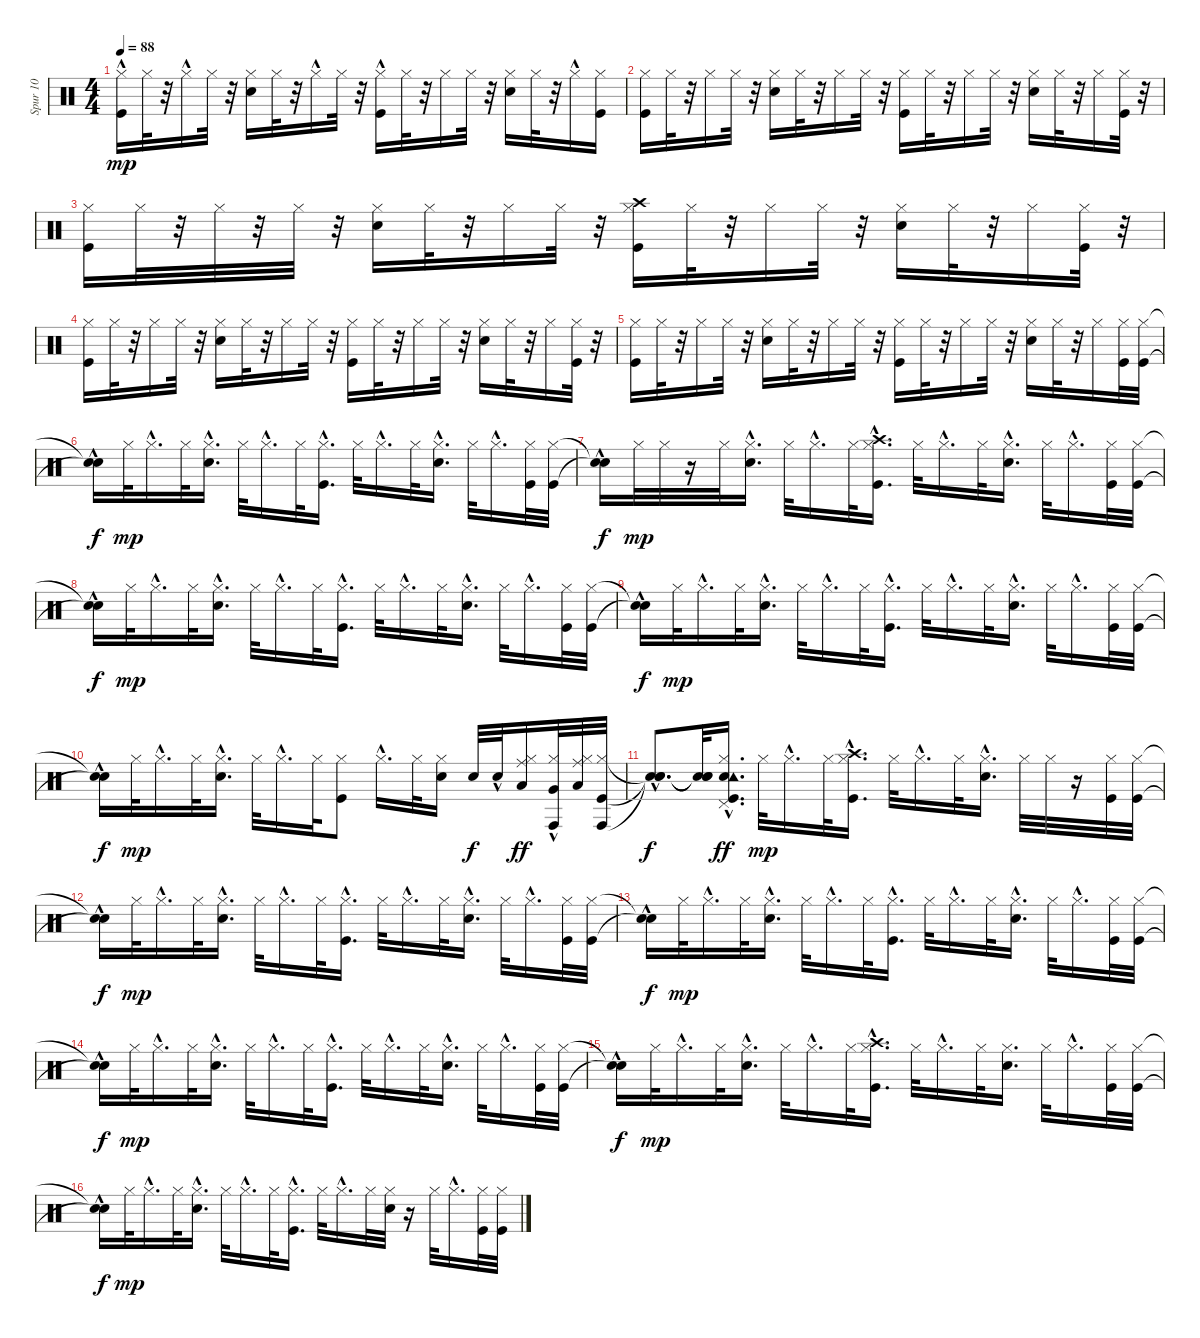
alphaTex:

\track ("Spur 10" "Spur 10") {instrument percussion}
\staff {score}
\articulation defaults
\ts (4 4)
\tempo 88
\clef neutral
\ks c
("Kick (hit)" "Hi-Hat (closed)"{hac}).16{dy mp} "Hi-Hat (closed)".32 r.32 "Hi-Hat (closed)"{hac}.16 "Hi-Hat (closed)".32 r.32 ("Snare (hit) 2" "Hi-Hat (closed)").16 "Hi-Hat (closed)".32 r.32 "Hi-Hat (closed)"{hac}.16 "Hi-Hat (closed)".32 r.32 ("Kick (hit)"{hac} "Hi-Hat (closed)").16 "Hi-Hat (closed)".32 r.32 "Hi-Hat (closed)".16 "Hi-Hat (closed)".32 r.32 ("Snare (hit) 2" "Hi-Hat (closed)").16 "Hi-Hat (closed)".32 r.32 "Hi-Hat (closed)"{hac}.16 ("Kick (hit)" "Hi-Hat (closed)").16 |
("Kick (hit)" "Hi-Hat (closed)").16 "Hi-Hat (closed)".32 r.32 "Hi-Hat (closed)".16 "Hi-Hat (closed)".32 r.32 ("Snare (hit) 2" "Hi-Hat (closed)").16 "Hi-Hat (closed)".32 r.32 "Hi-Hat (closed)".16 "Hi-Hat (closed)".32 r.32 ("Kick (hit)" "Hi-Hat (closed)").16 "Hi-Hat (closed)".32 r.32 "Hi-Hat (closed)".16 "Hi-Hat (closed)".32 r.32 ("Snare (hit) 2" "Hi-Hat (closed)").16 "Hi-Hat (closed)".32 r.32 "Hi-Hat (closed)".16 ("Kick (hit)" "Hi-Hat (closed)").32 r.32 |
("Kick (hit)" "Hi-Hat (closed)").16 "Hi-Hat (closed)".32 r.32 "Hi-Hat (closed)".32 r.32 "Hi-Hat (closed)".32 r.32 ("Snare (hit) 2" "Hi-Hat (closed)").16 "Hi-Hat (closed)".32 r.32 "Hi-Hat (closed)".16 "Hi-Hat (closed)".32 r.32 ("Kick (hit)" "Hi-Hat (closed)" "Crash high (hit)").16 "Hi-Hat (closed)".32 r.32 "Hi-Hat (closed)".16 "Hi-Hat (closed)".32 r.32 ("Snare (hit) 2" "Hi-Hat (closed)").16 "Hi-Hat (closed)".32 r.32 "Hi-Hat (closed)".16 ("Kick (hit)" "Hi-Hat (closed)").32 r.32 |
("Kick (hit)" "Hi-Hat (closed)").16 "Hi-Hat (closed)".32 r.32 "Hi-Hat (closed)".16 "Hi-Hat (closed)".32 r.32 ("Snare (hit) 2" "Hi-Hat (closed)").16 "Hi-Hat (closed)".32 r.32 "Hi-Hat (closed)".16 "Hi-Hat (closed)".32 r.32 ("Kick (hit)" "Hi-Hat (closed)").16 "Hi-Hat (closed)".32 r.32 "Hi-Hat (closed)".16 "Hi-Hat (closed)".32 r.32 ("Snare (hit) 2" "Hi-Hat (closed)").16 "Hi-Hat (closed)".32 r.32 "Hi-Hat (closed)".16 ("Kick (hit)" "Hi-Hat (closed)").32 r.32 |
("Kick (hit)" "Hi-Hat (closed)").16 "Hi-Hat (closed)".32 r.32 "Hi-Hat (closed)".16 "Hi-Hat (closed)".32 r.32 ("Snare (hit) 2" "Hi-Hat (closed)").16 "Hi-Hat (closed)".32 r.32 "Hi-Hat (closed)".16 "Hi-Hat (closed)".32 r.32 ("Kick (hit)" "Hi-Hat (closed)").16 "Hi-Hat (closed)".32 r.32 "Hi-Hat (closed)".16 "Hi-Hat (closed)".32 r.32 ("Snare (hit) 2" "Hi-Hat (closed)").16 "Hi-Hat (closed)".32 r.32 "Hi-Hat (closed)".16 ("Kick (hit)" "Hi-Hat (closed)").32 ("Kick (hit)" "Hi-Hat (closed)").32 |
("Snare (hit)"{hac t} "Snare (hit)"{t}).16{dy f} "Hi-Hat (closed)".32{dy mp} "Hi-Hat (closed)"{hac}.16{d} "Hi-Hat (closed)".32 ("Snare (hit) 2" "Hi-Hat (closed)"{hac}).16{d} "Hi-Hat (closed)".32 "Hi-Hat (closed)"{hac}.16{d} "Hi-Hat (closed)".32 ("Kick (hit)"{hac} "Hi-Hat (closed)"{hac}).16{d} "Hi-Hat (closed)".32 "Hi-Hat (closed)"{hac}.16{d} "Hi-Hat (closed)".32 ("Snare (hit) 2" "Hi-Hat (closed)"{hac}).16{d} "Hi-Hat (closed)".32 "Hi-Hat (closed)"{hac}.16{d} ("Kick (hit)" "Hi-Hat (closed)").32 ("Kick (hit)" "Hi-Hat (closed)").32 |
("Snare (hit)"{hac t} "Snare (hit)"{t}).16{dy f} "Hi-Hat (closed)".32{dy mp} "Hi-Hat (closed)".32 r.16 "Hi-Hat (closed)".32 ("Snare (hit) 2" "Hi-Hat (closed)"{hac}).16{d} "Hi-Hat (closed)".32 "Hi-Hat (closed)"{hac}.16{d} "Hi-Hat (closed)".32 ("Kick (hit)"{hac} "Hi-Hat (closed)"{hac} "Crash high (hit)").16{d} "Hi-Hat (closed)".32 "Hi-Hat (closed)"{hac}.16{d} "Hi-Hat (closed)".32 ("Snare (hit) 2" "Hi-Hat (closed)"{hac}).16{d} "Hi-Hat (closed)".32 "Hi-Hat (closed)"{hac}.16{d} ("Kick (hit)" "Hi-Hat (closed)").32 ("Kick (hit)" "Hi-Hat (closed)").32 |
("Snare (hit)"{hac t} "Snare (hit)"{t}).16{dy f} "Hi-Hat (closed)".32{dy mp} "Hi-Hat (closed)"{hac}.16{d} "Hi-Hat (closed)".32 ("Snare (hit) 2" "Hi-Hat (closed)"{hac}).16{d} "Hi-Hat (closed)".32 "Hi-Hat (closed)"{hac}.16{d} "Hi-Hat (closed)".32 ("Kick (hit)"{hac} "Hi-Hat (closed)"{hac}).16{d} "Hi-Hat (closed)".32 "Hi-Hat (closed)"{hac}.16{d} "Hi-Hat (closed)".32 ("Snare (hit) 2" "Hi-Hat (closed)"{hac}).16{d} "Hi-Hat (closed)".32 "Hi-Hat (closed)"{hac}.16{d} ("Kick (hit)" "Hi-Hat (closed)").32 ("Kick (hit)" "Hi-Hat (closed)").32 |
("Snare (hit)"{hac t} "Snare (hit)"{t}).16{dy f} "Hi-Hat (closed)".32{dy mp} "Hi-Hat (closed)"{hac}.16{d} "Hi-Hat (closed)".32 ("Snare (hit) 2" "Hi-Hat (closed)"{hac}).16{d} "Hi-Hat (closed)".32 "Hi-Hat (closed)"{hac}.16{d} "Hi-Hat (closed)".32 ("Kick (hit)"{hac} "Hi-Hat (closed)"{hac}).16{d} "Hi-Hat (closed)".32 "Hi-Hat (closed)"{hac}.16{d} "Hi-Hat (closed)".32 ("Snare (hit) 2" "Hi-Hat (closed)"{hac}).16{d} "Hi-Hat (closed)".32 "Hi-Hat (closed)"{hac}.16{d} ("Kick (hit)" "Hi-Hat (closed)").32 ("Kick (hit)" "Hi-Hat (closed)").32 |
("Snare (hit)"{hac t} "Snare (hit)"{t}).16{dy f} "Hi-Hat (closed)".32{dy mp} "Hi-Hat (closed)"{hac}.16{d} "Hi-Hat (closed)".32 ("Snare (hit) 2"{hac} "Hi-Hat (closed)"{hac}).16{d} "Hi-Hat (closed)".32 "Hi-Hat (closed)"{hac}.16{d} "Hi-Hat (closed)".32 ("Kick (hit)" "Hi-Hat (closed)").8 "Hi-Hat (closed)"{hac}.16{d} "Hi-Hat (closed)".32 ("Snare (hit) 2" "Hi-Hat (closed)").16 "Snare (hit) 2".32{dy f} "Snare (hit) 2"{hac}.32 ("Hi-Hat (closed)" "Low Tom (hit)" "Ride (middle)").16{dy ff} ("Hi-Hat (closed)" "Very Low Tom (hit)" "Conga high (hit)"{hac}).32 ("Low Floor Tom (hit)" "Hi-Hat (closed)" "Ride (middle)").32 ("Kick (hit)" "Hi-Hat (closed)" "Conga high (hit)").32 |
("Snare (hit)"{hac t} "Snare (hit)"{hac t} "Snare (hit)"{hac t}).8{d dy f} ("Snare (hit)"{t} "Snare (hit)"{t} "Snare (hit)"{t}).32 ("Kick (hit)" "Snare (hit) 2"{hac} "Hi-Hat (closed)"{hac} "Pedal Hi-Hat (hit)"{hac} "Tambourine (hit)"{hac}).16{d dy ff} "Hi-Hat (closed)".32{dy mp} "Hi-Hat (closed)"{hac}.16{d} "Hi-Hat (closed)".32 ("Kick (hit)"{hac} "Hi-Hat (closed)"{hac} "Crash high (hit)").16{d} "Hi-Hat (closed)".32 "Hi-Hat (closed)"{hac}.16{d} "Hi-Hat (closed)".32 ("Snare (hit) 2" "Hi-Hat (closed)"{hac}).16{d} "Hi-Hat (closed)".32 "Hi-Hat (closed)".32 r.16 ("Kick (hit)" "Hi-Hat (closed)").32 ("Kick (hit)" "Hi-Hat (closed)").32 |
("Snare (hit)"{hac t} "Snare (hit)"{t}).16{dy f} "Hi-Hat (closed)".32{dy mp} "Hi-Hat (closed)"{hac}.16{d} "Hi-Hat (closed)".32 ("Snare (hit) 2"{hac} "Hi-Hat (closed)"{hac}).16{d} "Hi-Hat (closed)".32 "Hi-Hat (closed)"{hac}.16{d} "Hi-Hat (closed)".32 ("Kick (hit)"{hac} "Hi-Hat (closed)"{hac}).16{d} "Hi-Hat (closed)".32 "Hi-Hat (closed)"{hac}.16{d} "Hi-Hat (closed)".32 ("Snare (hit) 2" "Hi-Hat (closed)"{hac}).16{d} "Hi-Hat (closed)".32 "Hi-Hat (closed)"{hac}.16{d} ("Kick (hit)" "Hi-Hat (closed)").32 ("Kick (hit)" "Hi-Hat (closed)").32 |
("Snare (hit)"{hac t} "Snare (hit)"{t}).16{dy f} "Hi-Hat (closed)".32{dy mp} "Hi-Hat (closed)"{hac}.16{d} "Hi-Hat (closed)".32 ("Snare (hit) 2"{hac} "Hi-Hat (closed)"{hac}).16{d} "Hi-Hat (closed)".32 "Hi-Hat (closed)"{hac}.16{d} "Hi-Hat (closed)".32 ("Kick (hit)"{hac} "Hi-Hat (closed)"{hac}).16{d} "Hi-Hat (closed)".32 "Hi-Hat (closed)"{hac}.16{d} "Hi-Hat (closed)".32 ("Snare (hit) 2" "Hi-Hat (closed)"{hac}).16{d} "Hi-Hat (closed)".32 "Hi-Hat (closed)"{hac}.16{d} ("Kick (hit)" "Hi-Hat (closed)").32 ("Kick (hit)" "Hi-Hat (closed)").32 |
("Snare (hit)"{hac t} "Snare (hit)"{t}).16{dy f} "Hi-Hat (closed)".32{dy mp} "Hi-Hat (closed)"{hac}.16{d} "Hi-Hat (closed)".32 ("Snare (hit) 2" "Hi-Hat (closed)"{hac}).16{d} "Hi-Hat (closed)".32 "Hi-Hat (closed)"{hac}.16{d} "Hi-Hat (closed)".32 ("Kick (hit)"{hac} "Hi-Hat (closed)"{hac}).16{d} "Hi-Hat (closed)".32 "Hi-Hat (closed)"{hac}.16{d} "Hi-Hat (closed)".32 ("Snare (hit) 2" "Hi-Hat (closed)"{hac}).16{d} "Hi-Hat (closed)".32 "Hi-Hat (closed)"{hac}.16{d} ("Kick (hit)" "Hi-Hat (closed)").32 ("Kick (hit)" "Hi-Hat (closed)").32 |
("Snare (hit)"{hac t} "Snare (hit)"{t}).16{dy f} "Hi-Hat (closed)".32{dy mp} "Hi-Hat (closed)"{hac}.16{d} "Hi-Hat (closed)".32 ("Snare (hit) 2"{hac} "Hi-Hat (closed)"{hac}).16{d} "Hi-Hat (closed)".32 "Hi-Hat (closed)"{hac}.16{d} "Hi-Hat (closed)".32 ("Kick (hit)"{hac} "Hi-Hat (closed)"{hac} "Crash high (hit)").16{d} "Hi-Hat (closed)".32 "Hi-Hat (closed)"{hac}.16{d} "Hi-Hat (closed)".32 ("Snare (hit) 2" "Hi-Hat (closed)").16{d} "Hi-Hat (closed)".32 "Hi-Hat (closed)"{hac}.16{d} ("Kick (hit)" "Hi-Hat (closed)").32 ("Kick (hit)" "Hi-Hat (closed)").32 |
("Snare (hit)"{hac t} "Snare (hit)"{t}).16{dy f} "Hi-Hat (closed)".32{dy mp} "Hi-Hat (closed)"{hac}.16{d} "Hi-Hat (closed)".32 ("Snare (hit) 2"{hac} "Hi-Hat (closed)"{hac}).16{d} "Hi-Hat (closed)".32 "Hi-Hat (closed)"{hac}.16{d} "Hi-Hat (closed)".32 ("Kick (hit)"{hac} "Hi-Hat (closed)"{hac}).16{d} "Hi-Hat (closed)".32 "Hi-Hat (closed)"{hac}.16{d} "Hi-Hat (closed)".32 ("Snare (hit) 2" "Hi-Hat (closed)").32 r.16 "Hi-Hat (closed)".32 "Hi-Hat (closed)"{hac}.16{d} ("Kick (hit)" "Hi-Hat (closed)").32 ("Kick (hit)" "Hi-Hat (closed)").32
